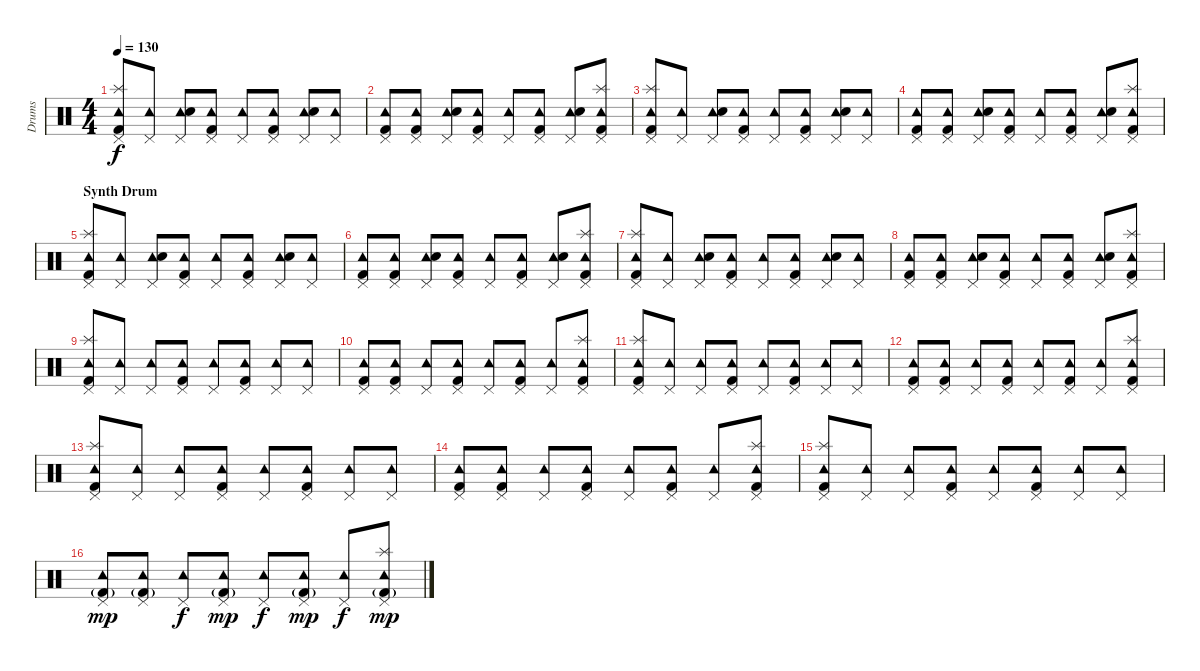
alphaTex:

\track ("Drums" "Drums") {instrument percussion}
\staff {score}
\articulation defaults
\ts (4 4)
\tempo 130
\clef neutral
\ks c
("Tambourine (hit)" "Pedal Hi-Hat (hit)" "Splash (hit)" "Kick (hit) 2").8{dy f} ("Tambourine (hit)" "Pedal Hi-Hat (hit)").8 ("Tambourine (hit)" "Pedal Hi-Hat (hit)" "Electric Snare (hit)").8 ("Tambourine (hit)" "Pedal Hi-Hat (hit)" "Kick (hit) 2").8 ("Tambourine (hit)" "Pedal Hi-Hat (hit)").8 ("Tambourine (hit)" "Pedal Hi-Hat (hit)" "Kick (hit) 2").8 ("Tambourine (hit)" "Pedal Hi-Hat (hit)" "Electric Snare (hit)").8 ("Tambourine (hit)" "Pedal Hi-Hat (hit)").8 |
("Tambourine (hit)" "Pedal Hi-Hat (hit)" "Kick (hit) 2").8 ("Tambourine (hit)" "Pedal Hi-Hat (hit)" "Kick (hit) 2").8 ("Tambourine (hit)" "Pedal Hi-Hat (hit)" "Electric Snare (hit)").8 ("Tambourine (hit)" "Pedal Hi-Hat (hit)" "Kick (hit) 2").8 ("Tambourine (hit)" "Pedal Hi-Hat (hit)").8 ("Tambourine (hit)" "Pedal Hi-Hat (hit)" "Kick (hit) 2").8 ("Tambourine (hit)" "Pedal Hi-Hat (hit)" "Electric Snare (hit)").8 ("Tambourine (hit)" "Pedal Hi-Hat (hit)" "Splash (hit)" "Kick (hit) 2").8 |
("Tambourine (hit)" "Pedal Hi-Hat (hit)" "Splash (hit)" "Kick (hit) 2").8 ("Tambourine (hit)" "Pedal Hi-Hat (hit)").8 ("Tambourine (hit)" "Pedal Hi-Hat (hit)" "Electric Snare (hit)").8 ("Tambourine (hit)" "Pedal Hi-Hat (hit)" "Kick (hit) 2").8 ("Tambourine (hit)" "Pedal Hi-Hat (hit)").8 ("Tambourine (hit)" "Pedal Hi-Hat (hit)" "Kick (hit) 2").8 ("Tambourine (hit)" "Pedal Hi-Hat (hit)" "Electric Snare (hit)").8 ("Tambourine (hit)" "Pedal Hi-Hat (hit)").8 |
("Tambourine (hit)" "Pedal Hi-Hat (hit)" "Kick (hit) 2").8 ("Tambourine (hit)" "Pedal Hi-Hat (hit)" "Kick (hit) 2").8 ("Tambourine (hit)" "Pedal Hi-Hat (hit)" "Electric Snare (hit)").8 ("Tambourine (hit)" "Pedal Hi-Hat (hit)" "Kick (hit) 2").8 ("Tambourine (hit)" "Pedal Hi-Hat (hit)").8 ("Tambourine (hit)" "Pedal Hi-Hat (hit)" "Kick (hit) 2").8 ("Tambourine (hit)" "Pedal Hi-Hat (hit)" "Electric Snare (hit)").8 ("Tambourine (hit)" "Pedal Hi-Hat (hit)" "Splash (hit)" "Kick (hit) 2").8 |
\section ("" "Synth Drum")
("Tambourine (hit)" "Pedal Hi-Hat (hit)" "Splash (hit)" "Kick (hit) 2").8 ("Tambourine (hit)" "Pedal Hi-Hat (hit)").8 ("Tambourine (hit)" "Pedal Hi-Hat (hit)" "Electric Snare (hit)").8 ("Tambourine (hit)" "Pedal Hi-Hat (hit)" "Kick (hit) 2").8 ("Tambourine (hit)" "Pedal Hi-Hat (hit)").8 ("Tambourine (hit)" "Pedal Hi-Hat (hit)" "Kick (hit) 2").8 ("Tambourine (hit)" "Pedal Hi-Hat (hit)" "Electric Snare (hit)").8 ("Tambourine (hit)" "Pedal Hi-Hat (hit)").8 |
("Tambourine (hit)" "Pedal Hi-Hat (hit)" "Kick (hit) 2").8 ("Tambourine (hit)" "Pedal Hi-Hat (hit)" "Kick (hit) 2").8 ("Tambourine (hit)" "Pedal Hi-Hat (hit)" "Electric Snare (hit)").8 ("Tambourine (hit)" "Pedal Hi-Hat (hit)" "Kick (hit) 2").8 ("Tambourine (hit)" "Pedal Hi-Hat (hit)").8 ("Tambourine (hit)" "Pedal Hi-Hat (hit)" "Kick (hit) 2").8 ("Tambourine (hit)" "Pedal Hi-Hat (hit)" "Electric Snare (hit)").8 ("Tambourine (hit)" "Pedal Hi-Hat (hit)" "Splash (hit)" "Kick (hit) 2").8 |
("Tambourine (hit)" "Pedal Hi-Hat (hit)" "Splash (hit)" "Kick (hit) 2").8 ("Tambourine (hit)" "Pedal Hi-Hat (hit)").8 ("Tambourine (hit)" "Pedal Hi-Hat (hit)" "Electric Snare (hit)").8 ("Tambourine (hit)" "Pedal Hi-Hat (hit)" "Kick (hit) 2").8 ("Tambourine (hit)" "Pedal Hi-Hat (hit)").8 ("Tambourine (hit)" "Pedal Hi-Hat (hit)" "Kick (hit) 2").8 ("Tambourine (hit)" "Pedal Hi-Hat (hit)" "Electric Snare (hit)").8 ("Tambourine (hit)" "Pedal Hi-Hat (hit)").8 |
("Tambourine (hit)" "Pedal Hi-Hat (hit)" "Kick (hit) 2").8 ("Tambourine (hit)" "Pedal Hi-Hat (hit)" "Kick (hit) 2").8 ("Tambourine (hit)" "Pedal Hi-Hat (hit)" "Electric Snare (hit)").8 ("Tambourine (hit)" "Pedal Hi-Hat (hit)" "Kick (hit) 2").8 ("Tambourine (hit)" "Pedal Hi-Hat (hit)").8 ("Tambourine (hit)" "Pedal Hi-Hat (hit)" "Kick (hit) 2").8 ("Tambourine (hit)" "Pedal Hi-Hat (hit)" "Electric Snare (hit)").8 ("Tambourine (hit)" "Pedal Hi-Hat (hit)" "Splash (hit)" "Kick (hit) 2").8 |
("Tambourine (hit)" "Pedal Hi-Hat (hit)" "Splash (hit)" "Kick (hit) 2").8 ("Tambourine (hit)" "Pedal Hi-Hat (hit)").8 ("Tambourine (hit)" "Pedal Hi-Hat (hit)").8 ("Tambourine (hit)" "Pedal Hi-Hat (hit)" "Kick (hit) 2").8 ("Tambourine (hit)" "Pedal Hi-Hat (hit)").8 ("Tambourine (hit)" "Pedal Hi-Hat (hit)" "Kick (hit) 2").8 ("Tambourine (hit)" "Pedal Hi-Hat (hit)").8 ("Tambourine (hit)" "Pedal Hi-Hat (hit)").8 |
("Tambourine (hit)" "Pedal Hi-Hat (hit)" "Kick (hit) 2").8 ("Tambourine (hit)" "Pedal Hi-Hat (hit)" "Kick (hit) 2").8 ("Tambourine (hit)" "Pedal Hi-Hat (hit)").8 ("Tambourine (hit)" "Pedal Hi-Hat (hit)" "Kick (hit) 2").8 ("Tambourine (hit)" "Pedal Hi-Hat (hit)").8 ("Tambourine (hit)" "Pedal Hi-Hat (hit)" "Kick (hit) 2").8 ("Tambourine (hit)" "Pedal Hi-Hat (hit)").8 ("Tambourine (hit)" "Pedal Hi-Hat (hit)" "Splash (hit)" "Kick (hit) 2").8 |
("Tambourine (hit)" "Pedal Hi-Hat (hit)" "Splash (hit)" "Kick (hit) 2").8 ("Tambourine (hit)" "Pedal Hi-Hat (hit)").8 ("Tambourine (hit)" "Pedal Hi-Hat (hit)").8 ("Tambourine (hit)" "Pedal Hi-Hat (hit)" "Kick (hit) 2").8 ("Tambourine (hit)" "Pedal Hi-Hat (hit)").8 ("Tambourine (hit)" "Pedal Hi-Hat (hit)" "Kick (hit) 2").8 ("Tambourine (hit)" "Pedal Hi-Hat (hit)").8 ("Tambourine (hit)" "Pedal Hi-Hat (hit)").8 |
("Tambourine (hit)" "Pedal Hi-Hat (hit)" "Kick (hit) 2").8 ("Tambourine (hit)" "Pedal Hi-Hat (hit)" "Kick (hit) 2").8 ("Tambourine (hit)" "Pedal Hi-Hat (hit)").8 ("Tambourine (hit)" "Pedal Hi-Hat (hit)" "Kick (hit) 2").8 ("Tambourine (hit)" "Pedal Hi-Hat (hit)").8 ("Tambourine (hit)" "Pedal Hi-Hat (hit)" "Kick (hit) 2").8 ("Tambourine (hit)" "Pedal Hi-Hat (hit)").8 ("Tambourine (hit)" "Pedal Hi-Hat (hit)" "Splash (hit)" "Kick (hit) 2").8 |
("Tambourine (hit)" "Pedal Hi-Hat (hit)" "Splash (hit)" "Kick (hit) 2").8 ("Tambourine (hit)" "Pedal Hi-Hat (hit)").8 ("Tambourine (hit)" "Pedal Hi-Hat (hit)").8 ("Tambourine (hit)" "Pedal Hi-Hat (hit)" "Kick (hit) 2").8 ("Tambourine (hit)" "Pedal Hi-Hat (hit)").8 ("Tambourine (hit)" "Pedal Hi-Hat (hit)" "Kick (hit) 2").8 ("Tambourine (hit)" "Pedal Hi-Hat (hit)").8 ("Tambourine (hit)" "Pedal Hi-Hat (hit)").8 |
("Tambourine (hit)" "Pedal Hi-Hat (hit)" "Kick (hit) 2").8 ("Tambourine (hit)" "Pedal Hi-Hat (hit)" "Kick (hit) 2").8 ("Tambourine (hit)" "Pedal Hi-Hat (hit)").8 ("Tambourine (hit)" "Pedal Hi-Hat (hit)" "Kick (hit) 2").8 ("Tambourine (hit)" "Pedal Hi-Hat (hit)").8 ("Tambourine (hit)" "Pedal Hi-Hat (hit)" "Kick (hit) 2").8 ("Tambourine (hit)" "Pedal Hi-Hat (hit)").8 ("Tambourine (hit)" "Pedal Hi-Hat (hit)" "Splash (hit)" "Kick (hit) 2").8 |
("Tambourine (hit)" "Pedal Hi-Hat (hit)" "Splash (hit)" "Kick (hit) 2").8 ("Tambourine (hit)" "Pedal Hi-Hat (hit)").8 ("Tambourine (hit)" "Pedal Hi-Hat (hit)").8 ("Tambourine (hit)" "Pedal Hi-Hat (hit)" "Kick (hit) 2").8 ("Tambourine (hit)" "Pedal Hi-Hat (hit)").8 ("Tambourine (hit)" "Pedal Hi-Hat (hit)" "Kick (hit) 2").8 ("Tambourine (hit)" "Pedal Hi-Hat (hit)").8 ("Tambourine (hit)" "Pedal Hi-Hat (hit)").8 |
("Tambourine (hit)" "Pedal Hi-Hat (hit)" "Kick (hit) 2"{g}).8{dy mp} ("Tambourine (hit)" "Pedal Hi-Hat (hit)" "Kick (hit) 2"{g}).8 ("Tambourine (hit)" "Pedal Hi-Hat (hit)").8{dy f} ("Tambourine (hit)" "Pedal Hi-Hat (hit)" "Kick (hit) 2"{g}).8{dy mp} ("Tambourine (hit)" "Pedal Hi-Hat (hit)").8{dy f} ("Tambourine (hit)" "Pedal Hi-Hat (hit)" "Kick (hit) 2"{g}).8{dy mp} ("Tambourine (hit)" "Pedal Hi-Hat (hit)").8{dy f} ("Tambourine (hit)" "Pedal Hi-Hat (hit)" "Splash (hit)" "Kick (hit) 2"{g}).8{dy mp}
